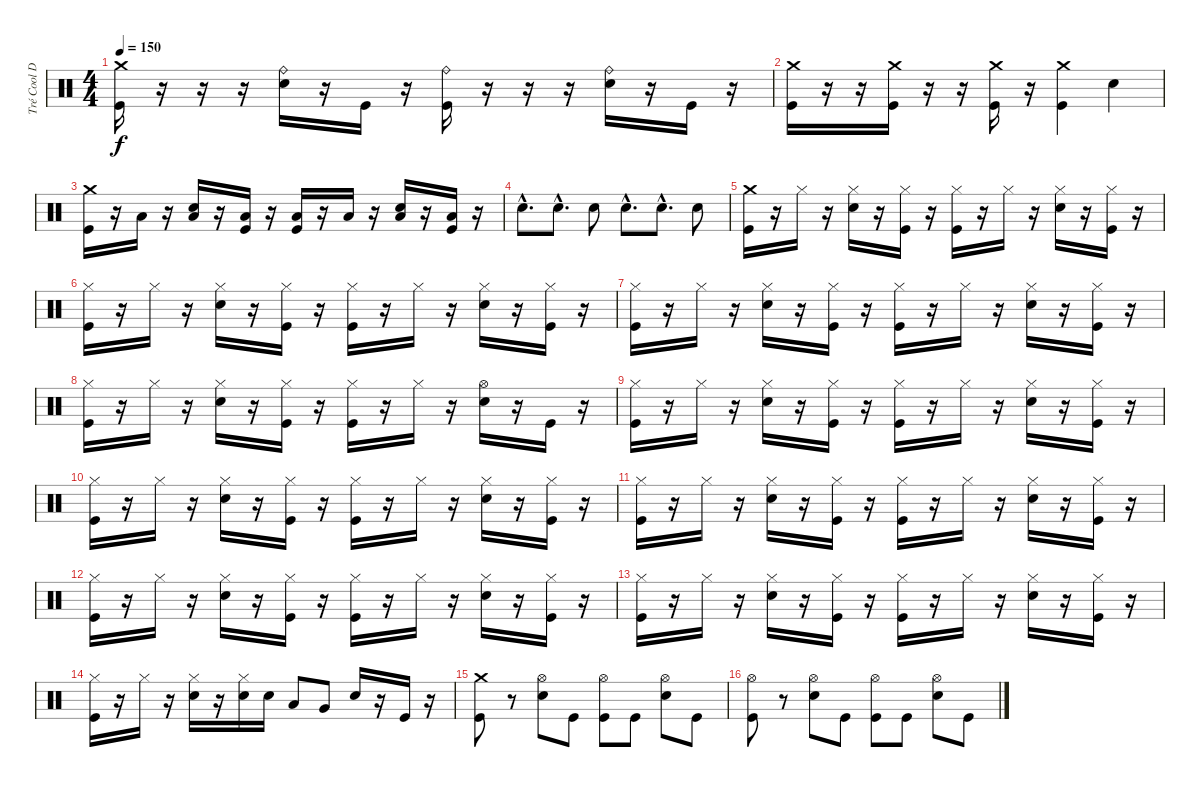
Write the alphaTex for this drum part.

\track ("Tré Cool Drums" "Tré Cool D") {instrument percussion}
\staff {score}
\articulation defaults
\ts (4 4)
\tempo 150
\clef neutral
\ks c
("Crash medium (hit)" "Kick (hit)").16{dy f} r.16 r.16 r.16 ("Ride (bell)" "Electric Snare (hit)").16 r.16 "Kick (hit)".16 r.16 ("Ride (bell)" "Kick (hit)").16 r.16 r.16 r.16 ("Ride (bell)" "Electric Snare (hit)").16 r.16 "Kick (hit)".16 r.16 |
("Crash medium (hit)" "Kick (hit)").16 r.16 r.16 ("Crash medium (hit)" "Kick (hit)").16 r.16 r.16 ("Crash medium (hit)" "Kick (hit)").16 r.16 ("Crash medium (hit)" "Kick (hit)").4 "Electric Snare (hit)".4 |
("Crash medium (hit)" "Kick (hit)").16 r.16 "Low Tom (hit)".16 r.16 ("Low Tom (hit)" "Electric Snare (hit)").16 r.16 ("Low Tom (hit)" "Kick (hit)").16 r.16 ("Low Tom (hit)" "Kick (hit)").16 r.16 "Low Tom (hit)".16 r.16 ("Low Tom (hit)" "Electric Snare (hit)").16 r.16 ("Low Tom (hit)" "Kick (hit)").16 r.16 |
"Electric Snare (hit)"{hac}.8{d} "Electric Snare (hit)"{hac}.8{d} "Electric Snare (hit)".8 "Electric Snare (hit)"{hac}.8{d} "Electric Snare (hit)"{hac}.8{d} "Electric Snare (hit)".8 |
("Crash medium (hit)" "Kick (hit)").16 r.16 "Hi-Hat (closed)".16 r.16 ("Hi-Hat (closed)" "Electric Snare (hit)").16 r.16 ("Hi-Hat (closed)" "Kick (hit)").16 r.16 ("Hi-Hat (closed)" "Kick (hit)").16 r.16 "Hi-Hat (closed)".16 r.16 ("Hi-Hat (closed)" "Electric Snare (hit)").16 r.16 ("Hi-Hat (closed)" "Kick (hit)").16 r.16 |
("Hi-Hat (closed)" "Kick (hit)").16 r.16 "Hi-Hat (closed)".16 r.16 ("Hi-Hat (closed)" "Electric Snare (hit)").16 r.16 ("Hi-Hat (closed)" "Kick (hit)").16 r.16 ("Hi-Hat (closed)" "Kick (hit)").16 r.16 "Hi-Hat (closed)".16 r.16 ("Hi-Hat (closed)" "Electric Snare (hit)").16 r.16 ("Hi-Hat (closed)" "Kick (hit)").16 r.16 |
("Hi-Hat (closed)" "Kick (hit)").16 r.16 "Hi-Hat (closed)".16 r.16 ("Hi-Hat (closed)" "Electric Snare (hit)").16 r.16 ("Hi-Hat (closed)" "Kick (hit)").16 r.16 ("Hi-Hat (closed)" "Kick (hit)").16 r.16 "Hi-Hat (closed)".16 r.16 ("Hi-Hat (closed)" "Electric Snare (hit)").16 r.16 ("Hi-Hat (closed)" "Kick (hit)").16 r.16 |
("Hi-Hat (closed)" "Kick (hit)").16 r.16 "Hi-Hat (closed)".16 r.16 ("Hi-Hat (closed)" "Electric Snare (hit)").16 r.16 ("Hi-Hat (closed)" "Kick (hit)").16 r.16 ("Hi-Hat (closed)" "Kick (hit)").16 r.16 "Hi-Hat (closed)".16 r.16 ("Hi-Hat (open)" "Electric Snare (hit)").16 r.16 "Kick (hit)".16 r.16 |
("Hi-Hat (closed)" "Kick (hit)").16 r.16 "Hi-Hat (closed)".16 r.16 ("Hi-Hat (closed)" "Electric Snare (hit)").16 r.16 ("Hi-Hat (closed)" "Kick (hit)").16 r.16 ("Hi-Hat (closed)" "Kick (hit)").16 r.16 "Hi-Hat (closed)".16 r.16 ("Hi-Hat (closed)" "Electric Snare (hit)").16 r.16 ("Hi-Hat (closed)" "Kick (hit)").16 r.16 |
("Hi-Hat (closed)" "Kick (hit)").16 r.16 "Hi-Hat (closed)".16 r.16 ("Hi-Hat (closed)" "Electric Snare (hit)").16 r.16 ("Hi-Hat (closed)" "Kick (hit)").16 r.16 ("Hi-Hat (closed)" "Kick (hit)").16 r.16 "Hi-Hat (closed)".16 r.16 ("Hi-Hat (closed)" "Electric Snare (hit)").16 r.16 ("Hi-Hat (closed)" "Kick (hit)").16 r.16 |
("Hi-Hat (closed)" "Kick (hit)").16 r.16 "Hi-Hat (closed)".16 r.16 ("Hi-Hat (closed)" "Electric Snare (hit)").16 r.16 ("Hi-Hat (closed)" "Kick (hit)").16 r.16 ("Hi-Hat (closed)" "Kick (hit)").16 r.16 "Hi-Hat (closed)".16 r.16 ("Hi-Hat (closed)" "Electric Snare (hit)").16 r.16 ("Hi-Hat (closed)" "Kick (hit)").16 r.16 |
("Hi-Hat (closed)" "Kick (hit)").16 r.16 "Hi-Hat (closed)".16 r.16 ("Hi-Hat (closed)" "Electric Snare (hit)").16 r.16 ("Hi-Hat (closed)" "Kick (hit)").16 r.16 ("Hi-Hat (closed)" "Kick (hit)").16 r.16 "Hi-Hat (closed)".16 r.16 ("Hi-Hat (closed)" "Electric Snare (hit)").16 r.16 ("Hi-Hat (closed)" "Kick (hit)").16 r.16 |
("Hi-Hat (closed)" "Kick (hit)").16 r.16 "Hi-Hat (closed)".16 r.16 ("Hi-Hat (closed)" "Electric Snare (hit)").16 r.16 ("Hi-Hat (closed)" "Kick (hit)").16 r.16 ("Hi-Hat (closed)" "Kick (hit)").16 r.16 "Hi-Hat (closed)".16 r.16 ("Hi-Hat (closed)" "Electric Snare (hit)").16 r.16 ("Hi-Hat (closed)" "Kick (hit)").16 r.16 |
("Hi-Hat (closed)" "Kick (hit)").16 r.16 "Hi-Hat (closed)".16 r.16 ("Hi-Hat (closed)" "Electric Snare (hit)").16 r.16 ("Hi-Hat (closed)" "Electric Snare (hit)").16 "Electric Snare (hit)".16 "Low Tom (hit)".8 "Very Low Tom (hit)".8 "Electric Snare (hit)".16 r.16 "Kick (hit)".16 r.16 |
("Crash medium (hit)" "Kick (hit)").8 r.8 ("Hi-Hat (open)" "Electric Snare (hit)").8 "Kick (hit)".8 ("Hi-Hat (open)" "Kick (hit)").8 "Kick (hit)".8 ("Hi-Hat (open)" "Electric Snare (hit)").8 "Kick (hit)".8 |
("Hi-Hat (open)" "Kick (hit)").8 r.8 ("Hi-Hat (open)" "Electric Snare (hit)").8 "Kick (hit)".8 ("Hi-Hat (open)" "Kick (hit)").8 "Kick (hit)".8 ("Hi-Hat (open)" "Electric Snare (hit)").8 "Kick (hit)".8
